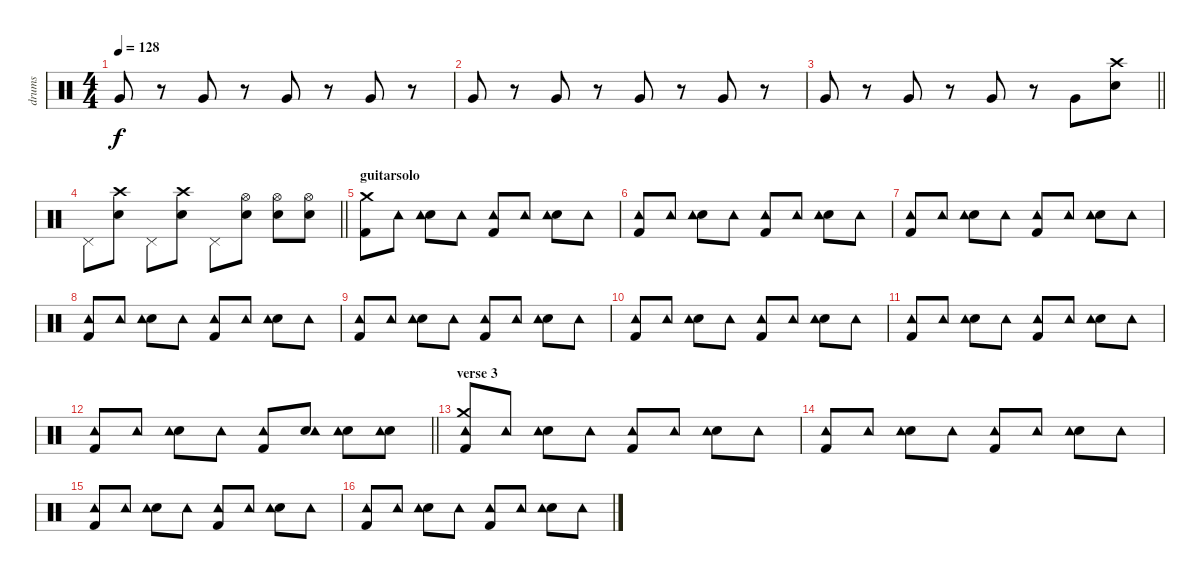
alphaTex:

\track ("drums" "drums") {instrument percussion}
\staff {score}
\articulation defaults
\ts (4 4)
\tempo 128
\clef neutral
\ks c "Very Low Tom (hit)".8{dy f}
r.8 "Very Low Tom (hit)".8 r.8 "Very Low Tom (hit)".8 r.8 "Very Low Tom (hit)".8 r.8 |
"Very Low Tom (hit)".8 r.8 "Very Low Tom (hit)".8 r.8 "Very Low Tom (hit)".8 r.8 "Very Low Tom (hit)".8 r.8 |
\barLineRight lightlight "Very Low Tom (hit)".8
r.8 "Very Low Tom (hit)".8 r.8 "Very Low Tom (hit)".8 r.8 "Very Low Tom (hit)".8 ("Electric Snare (hit)" "Crash high (hit)").8 |
\barLineRight lightlight "Pedal Hi-Hat (hit)".8
("Electric Snare (hit)" "Crash high (hit)").8 "Pedal Hi-Hat (hit)".8 ("Electric Snare (hit)" "Crash high (hit)").8 "Pedal Hi-Hat (hit)".8 ("Electric Snare (hit)" "Hi-Hat (open)").8 ("Electric Snare (hit)" "Hi-Hat (open)").8 ("Electric Snare (hit)" "Hi-Hat (open)").8 |
\section ("" "guitarsolo")
("Kick (hit) 2" "Crash medium (hit)").8 "Tambourine (hit)".8 ("Electric Snare (hit)" "Tambourine (hit)").8 "Tambourine (hit)".8 ("Kick (hit) 2" "Tambourine (hit)").8 "Tambourine (hit)".8 ("Electric Snare (hit)" "Tambourine (hit)").8 "Tambourine (hit)".8 |
("Kick (hit) 2" "Tambourine (hit)").8 "Tambourine (hit)".8 ("Electric Snare (hit)" "Tambourine (hit)").8 "Tambourine (hit)".8 ("Kick (hit) 2" "Tambourine (hit)").8 "Tambourine (hit)".8 ("Electric Snare (hit)" "Tambourine (hit)").8 "Tambourine (hit)".8 |
("Kick (hit) 2" "Tambourine (hit)").8 "Tambourine (hit)".8 ("Electric Snare (hit)" "Tambourine (hit)").8 "Tambourine (hit)".8 ("Kick (hit) 2" "Tambourine (hit)").8 "Tambourine (hit)".8 ("Electric Snare (hit)" "Tambourine (hit)").8 "Tambourine (hit)".8 |
("Kick (hit) 2" "Tambourine (hit)").8 "Tambourine (hit)".8 ("Electric Snare (hit)" "Tambourine (hit)").8 "Tambourine (hit)".8 ("Kick (hit) 2" "Tambourine (hit)").8 "Tambourine (hit)".8 ("Electric Snare (hit)" "Tambourine (hit)").8 "Tambourine (hit)".8 |
("Kick (hit) 2" "Tambourine (hit)").8 "Tambourine (hit)".8 ("Electric Snare (hit)" "Tambourine (hit)").8 "Tambourine (hit)".8 ("Kick (hit) 2" "Tambourine (hit)").8 "Tambourine (hit)".8 ("Electric Snare (hit)" "Tambourine (hit)").8 "Tambourine (hit)".8 |
("Kick (hit) 2" "Tambourine (hit)").8 "Tambourine (hit)".8 ("Electric Snare (hit)" "Tambourine (hit)").8 "Tambourine (hit)".8 ("Kick (hit) 2" "Tambourine (hit)").8 "Tambourine (hit)".8 ("Electric Snare (hit)" "Tambourine (hit)").8 "Tambourine (hit)".8 |
("Kick (hit) 2" "Tambourine (hit)").8 "Tambourine (hit)".8 ("Electric Snare (hit)" "Tambourine (hit)").8 "Tambourine (hit)".8 ("Kick (hit) 2" "Tambourine (hit)").8 "Tambourine (hit)".8 ("Electric Snare (hit)" "Tambourine (hit)").8 "Tambourine (hit)".8 |
\barLineRight lightlight
("Kick (hit) 2" "Tambourine (hit)").8 "Tambourine (hit)".8 ("Electric Snare (hit)" "Tambourine (hit)").8 "Tambourine (hit)".8 ("Kick (hit) 2" "Tambourine (hit)").8 ("Electric Snare (hit)" "Tambourine (hit)").8 ("Electric Snare (hit)" "Tambourine (hit)").8 ("Electric Snare (hit)" "Tambourine (hit)").8 |
\section ("" "verse 3")
("Kick (hit) 2" "Tambourine (hit)" "Crash medium (hit)").8 "Tambourine (hit)".8 ("Electric Snare (hit)" "Tambourine (hit)").8 "Tambourine (hit)".8 ("Kick (hit) 2" "Tambourine (hit)").8 "Tambourine (hit)".8 ("Electric Snare (hit)" "Tambourine (hit)").8 "Tambourine (hit)".8 |
("Kick (hit) 2" "Tambourine (hit)").8 "Tambourine (hit)".8 ("Electric Snare (hit)" "Tambourine (hit)").8 "Tambourine (hit)".8 ("Kick (hit) 2" "Tambourine (hit)").8 "Tambourine (hit)".8 ("Electric Snare (hit)" "Tambourine (hit)").8 "Tambourine (hit)".8 |
("Kick (hit) 2" "Tambourine (hit)").8 "Tambourine (hit)".8 ("Electric Snare (hit)" "Tambourine (hit)").8 "Tambourine (hit)".8 ("Kick (hit) 2" "Tambourine (hit)").8 "Tambourine (hit)".8 ("Electric Snare (hit)" "Tambourine (hit)").8 "Tambourine (hit)".8 |
("Kick (hit) 2" "Tambourine (hit)").8 "Tambourine (hit)".8 ("Electric Snare (hit)" "Tambourine (hit)").8 "Tambourine (hit)".8 ("Kick (hit) 2" "Tambourine (hit)").8 "Tambourine (hit)".8 ("Electric Snare (hit)" "Tambourine (hit)").8 "Tambourine (hit)".8
